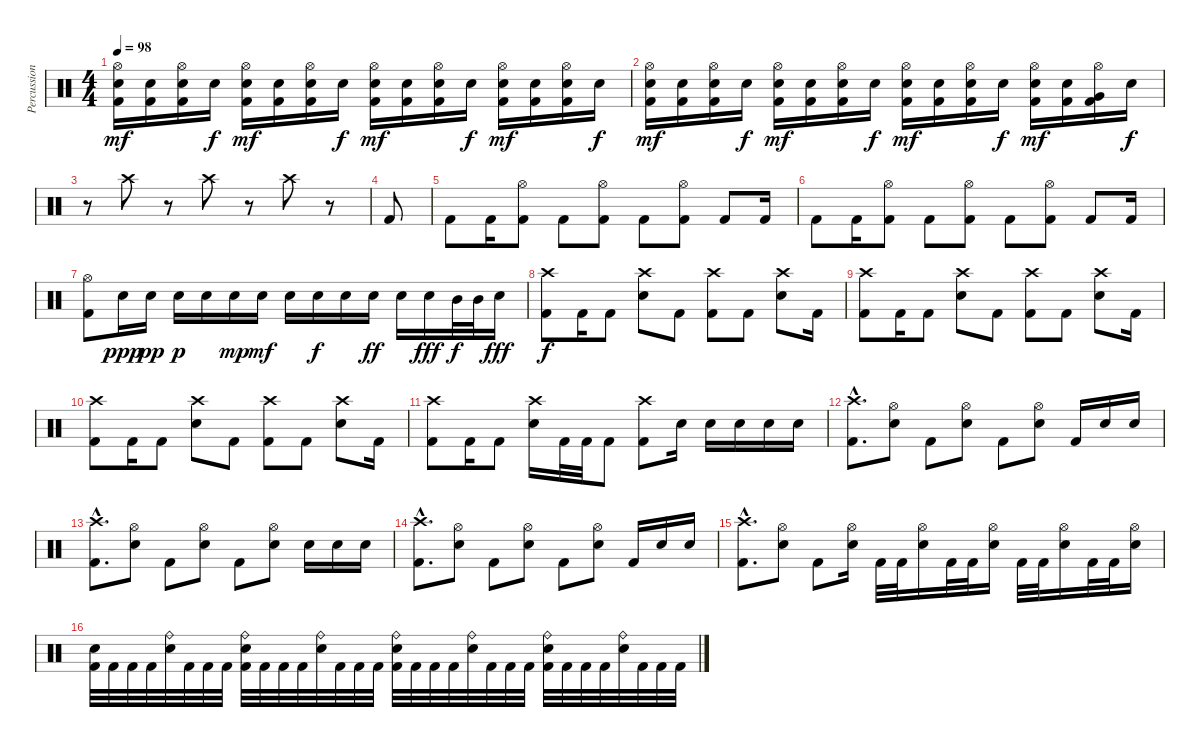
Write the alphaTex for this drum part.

\track ("Percussion" "Percussion") {instrument percussion}
\staff {score}
\articulation defaults
\ts (4 4)
\tempo 98
\clef neutral
\ks c
("Hi-Hat (open)" "Electric Snare (hit)" "Kick (hit) 2").16{dy mf} ("Electric Snare (hit)" "Kick (hit) 2").16 ("Hi-Hat (open)" "Electric Snare (hit)" "Kick (hit) 2").16 "Electric Snare (hit)".16{dy f} ("Hi-Hat (open)" "Electric Snare (hit)" "Kick (hit) 2").16{dy mf} ("Electric Snare (hit)" "Kick (hit) 2").16 ("Hi-Hat (open)" "Electric Snare (hit)" "Kick (hit) 2").16 "Electric Snare (hit)".16{dy f} ("Hi-Hat (open)" "Electric Snare (hit)" "Kick (hit) 2").16{dy mf} ("Electric Snare (hit)" "Kick (hit) 2").16 ("Hi-Hat (open)" "Electric Snare (hit)" "Kick (hit) 2").16 "Electric Snare (hit)".16{dy f} ("Hi-Hat (open)" "Electric Snare (hit)" "Kick (hit) 2").16{dy mf} ("Electric Snare (hit)" "Kick (hit) 2").16 ("Hi-Hat (open)" "Electric Snare (hit)" "Kick (hit) 2").16 "Electric Snare (hit)".16{dy f} |
("Hi-Hat (open)" "Electric Snare (hit)" "Kick (hit) 2").16{dy mf} ("Electric Snare (hit)" "Kick (hit) 2").16 ("Hi-Hat (open)" "Electric Snare (hit)" "Kick (hit) 2").16 "Electric Snare (hit)".16{dy f} ("Hi-Hat (open)" "Electric Snare (hit)" "Kick (hit) 2").16{dy mf} ("Electric Snare (hit)" "Kick (hit) 2").16 ("Hi-Hat (open)" "Electric Snare (hit)" "Kick (hit) 2").16 "Electric Snare (hit)".16{dy f} ("Hi-Hat (open)" "Electric Snare (hit)" "Kick (hit) 2").16{dy mf} ("Electric Snare (hit)" "Kick (hit) 2").16 ("Hi-Hat (open)" "Electric Snare (hit)" "Kick (hit) 2").16 "Electric Snare (hit)".16{dy f} ("Hi-Hat (open)" "Electric Snare (hit)" "Kick (hit) 2").16{dy mf} ("Electric Snare (hit)" "Kick (hit) 2").16 ("Hi-Hat (open)" "Very Low Tom (hit)" "Kick (hit) 2").16 "Electric Snare (hit)".16{dy f} |
r.8 "Crash high (hit)".8 r.8 "Crash high (hit)".8 r.8 "Crash high (hit)".8 r.8 |
"Kick (hit) 2".8 |
"Kick (hit) 2".8 "Kick (hit) 2".16 ("Hi-Hat (open)" "Kick (hit) 2").8 "Kick (hit) 2".8 ("Hi-Hat (open)" "Kick (hit) 2").8 "Kick (hit) 2".8 ("Hi-Hat (open)" "Kick (hit) 2").8 "Kick (hit) 2".8 "Kick (hit) 2".16 |
"Kick (hit) 2".8 "Kick (hit) 2".16 ("Hi-Hat (open)" "Kick (hit) 2").8 "Kick (hit) 2".8 ("Hi-Hat (open)" "Kick (hit) 2").8 "Kick (hit) 2".8 ("Hi-Hat (open)" "Kick (hit) 2").8 "Kick (hit) 2".8 "Kick (hit) 2".16 |
("Hi-Hat (open)" "Kick (hit) 2").8 "Electric Snare (hit)".16{dy ppp} "Electric Snare (hit)".16{dy pp} "Electric Snare (hit)".16{dy p} "Electric Snare (hit)".16 "Electric Snare (hit)".16{dy mp} "Electric Snare (hit)".16{dy mf} "Electric Snare (hit)".16 "Electric Snare (hit)".16{dy f} "Electric Snare (hit)".16 "Electric Snare (hit)".16{dy ff} "Electric Snare (hit)".16 "Electric Snare (hit)".16{dy fff} "Mid Tom (hit)".32{dy f} "Mid Tom (hit)".32 "Electric Snare (hit)".16{dy fff} |
("Crash high (hit)" "Kick (hit) 2").8{dy f} "Kick (hit) 2".16 "Kick (hit) 2".8 ("Crash high (hit)" "Electric Snare (hit)").8 "Kick (hit) 2".8 ("Crash high (hit)" "Kick (hit) 2").8 "Kick (hit) 2".8 ("Crash high (hit)" "Electric Snare (hit)").8 "Kick (hit) 2".16 |
("Crash high (hit)" "Kick (hit) 2").8 "Kick (hit) 2".16 "Kick (hit) 2".8 ("Crash high (hit)" "Electric Snare (hit)").8 "Kick (hit) 2".8 ("Crash high (hit)" "Kick (hit) 2").8 "Kick (hit) 2".8 ("Crash high (hit)" "Electric Snare (hit)").8 "Kick (hit) 2".16 |
("Crash high (hit)" "Kick (hit) 2").8 "Kick (hit) 2".16 "Kick (hit) 2".8 ("Crash high (hit)" "Electric Snare (hit)").8 "Kick (hit) 2".8 ("Crash high (hit)" "Kick (hit) 2").8 "Kick (hit) 2".8 ("Crash high (hit)" "Electric Snare (hit)").8 "Kick (hit) 2".16 |
("Crash high (hit)" "Kick (hit) 2").8 "Kick (hit) 2".16 "Kick (hit) 2".8 ("Crash high (hit)" "Electric Snare (hit)").16 "Kick (hit) 2".32 "Kick (hit) 2".32 "Kick (hit) 2".8 ("Crash high (hit)" "Kick (hit) 2").8 "Electric Snare (hit)".16 "Electric Snare (hit)".16 "Electric Snare (hit)".16 "Electric Snare (hit)".16 "Electric Snare (hit)".16 |
("Crash high (hit)"{hac} "Kick (hit) 2"{hac}).8{d} ("Hi-Hat (open)" "Electric Snare (hit)").8 "Kick (hit) 2".8 ("Hi-Hat (open)" "Electric Snare (hit)").8 "Kick (hit) 2".8 ("Hi-Hat (open)" "Electric Snare (hit)").8 "Kick (hit) 2".16 "Electric Snare (hit)".16 "Electric Snare (hit)".16 |
("Crash high (hit)"{hac} "Kick (hit) 2"{hac}).8{d} ("Hi-Hat (open)" "Electric Snare (hit)").8 "Kick (hit) 2".8 ("Hi-Hat (open)" "Electric Snare (hit)").8 "Kick (hit) 2".8 ("Hi-Hat (open)" "Electric Snare (hit)").8 "Electric Snare (hit)".16 "Electric Snare (hit)".16 "Electric Snare (hit)".16 |
("Crash high (hit)"{hac} "Kick (hit) 2"{hac}).8{d} ("Hi-Hat (open)" "Electric Snare (hit)").8 "Kick (hit) 2".8 ("Hi-Hat (open)" "Electric Snare (hit)").8 "Kick (hit) 2".8 ("Hi-Hat (open)" "Electric Snare (hit)").8 "Kick (hit) 2".16 "Electric Snare (hit)".16 "Electric Snare (hit)".16 |
("Crash high (hit)"{hac} "Kick (hit) 2"{hac}).8{d} ("Hi-Hat (open)" "Electric Snare (hit)").8 "Kick (hit) 2".8 ("Hi-Hat (open)" "Electric Snare (hit)").16 "Kick (hit) 2".32 "Kick (hit) 2".32 ("Hi-Hat (open)" "Electric Snare (hit)").16 "Kick (hit) 2".32 "Kick (hit) 2".32 ("Hi-Hat (open)" "Electric Snare (hit)").16 "Kick (hit) 2".32 "Kick (hit) 2".32 ("Hi-Hat (open)" "Electric Snare (hit)").16 "Kick (hit) 2".32 "Kick (hit) 2".32 ("Hi-Hat (open)" "Electric Snare (hit)").16 |
("Electric Snare (hit)" "Kick (hit) 2").32 "Kick (hit) 2".32 "Kick (hit) 2".32 "Kick (hit) 2".32 ("Ride (bell)" "Electric Snare (hit)").32 "Kick (hit) 2".32 "Kick (hit) 2".32 "Kick (hit) 2".32 ("Ride (bell)" "Electric Snare (hit)" "Kick (hit) 2").32 "Kick (hit) 2".32 "Kick (hit) 2".32 "Kick (hit) 2".32 ("Ride (bell)" "Electric Snare (hit)").32 "Kick (hit) 2".32 "Kick (hit) 2".32 "Kick (hit) 2".32 ("Ride (bell)" "Electric Snare (hit)" "Kick (hit) 2").32 "Kick (hit) 2".32 "Kick (hit) 2".32 "Kick (hit) 2".32 ("Ride (bell)" "Electric Snare (hit)").32 "Kick (hit) 2".32 "Kick (hit) 2".32 "Kick (hit) 2".32 ("Ride (bell)" "Electric Snare (hit)" "Kick (hit) 2").32 "Kick (hit) 2".32 "Kick (hit) 2".32 "Kick (hit) 2".32 ("Ride (bell)" "Electric Snare (hit)").32 "Kick (hit) 2".32 "Kick (hit) 2".32 "Kick (hit) 2".32
